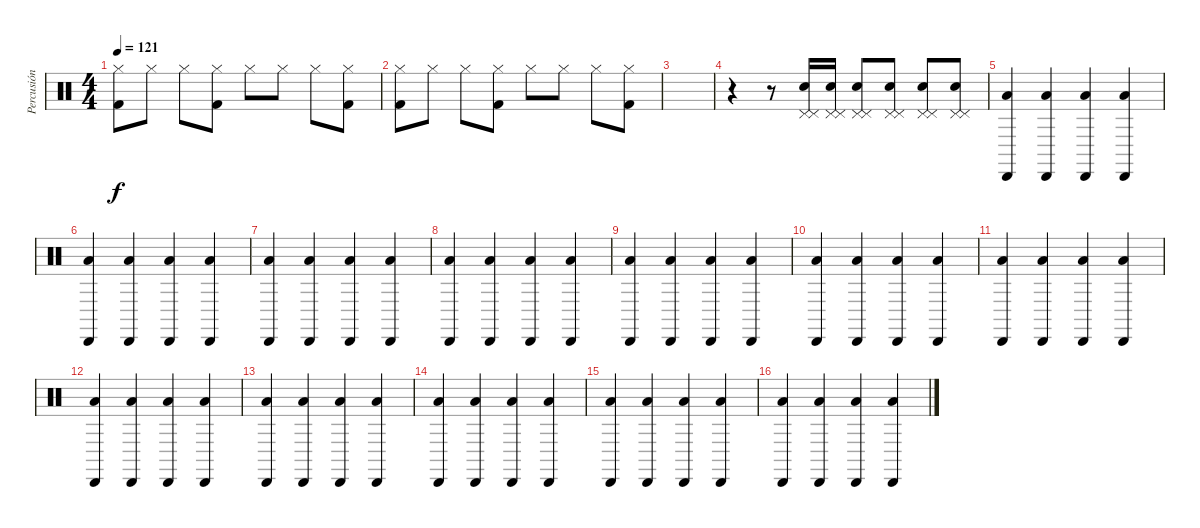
\track ("Percusión" "Percusión") {instrument percussion}
\staff {score}
\articulation defaults
\ts (4 4)
\tempo 121
\clef neutral
\ks c
("Kick (hit) 2" "Hi-Hat (closed)").8{dy f} "Hi-Hat (closed)".8 "Hi-Hat (closed)".8 ("Kick (hit) 2" "Hi-Hat (closed)").8 "Hi-Hat (closed)".8 "Hi-Hat (closed)".8 "Hi-Hat (closed)".8 ("Kick (hit) 2" "Hi-Hat (closed)").8 |
("Kick (hit) 2" "Hi-Hat (closed)").8 "Hi-Hat (closed)".8 "Hi-Hat (closed)".8 ("Kick (hit) 2" "Hi-Hat (closed)").8 "Hi-Hat (closed)".8 "Hi-Hat (closed)".8 "Hi-Hat (closed)".8 ("Kick (hit) 2" "Hi-Hat (closed)").8 |
|
r.4 r.8 ("Pedal Hi-Hat (hit)" "Pedal Hi-Hat (hit)" "Snare (hit)").16 ("Pedal Hi-Hat (hit)" "Pedal Hi-Hat (hit)" "Snare (hit)").16 ("Pedal Hi-Hat (hit)" "Pedal Hi-Hat (hit)" "Snare (hit)").8 ("Pedal Hi-Hat (hit)" "Pedal Hi-Hat (hit)" "Snare (hit)").8 ("Pedal Hi-Hat (hit)" "Pedal Hi-Hat (hit)" "Snare (hit)").8 ("Pedal Hi-Hat (hit)" "Pedal Hi-Hat (hit)" "Snare (hit)").8 |
("Low Tom (hit)" "Cabasa (hit)").4 ("Low Tom (hit)" "Cabasa (hit)").4 ("Low Tom (hit)" "Cabasa (hit)").4 ("Low Tom (hit)" "Cabasa (hit)").4 |
("Low Tom (hit)" "Cabasa (hit)").4 ("Low Tom (hit)" "Cabasa (hit)").4 ("Low Tom (hit)" "Cabasa (hit)").4 ("Low Tom (hit)" "Cabasa (hit)").4 |
("Low Tom (hit)" "Cabasa (hit)").4 ("Low Tom (hit)" "Cabasa (hit)").4 ("Low Tom (hit)" "Cabasa (hit)").4 ("Low Tom (hit)" "Cabasa (hit)").4 |
("Low Tom (hit)" "Cabasa (hit)").4 ("Low Tom (hit)" "Cabasa (hit)").4 ("Low Tom (hit)" "Cabasa (hit)").4 ("Low Tom (hit)" "Cabasa (hit)").4 |
("Low Tom (hit)" "Cabasa (hit)").4 ("Low Tom (hit)" "Cabasa (hit)").4 ("Low Tom (hit)" "Cabasa (hit)").4 ("Low Tom (hit)" "Cabasa (hit)").4 |
("Low Tom (hit)" "Cabasa (hit)").4 ("Low Tom (hit)" "Cabasa (hit)").4 ("Low Tom (hit)" "Cabasa (hit)").4 ("Low Tom (hit)" "Cabasa (hit)").4 |
("Low Tom (hit)" "Cabasa (hit)").4 ("Low Tom (hit)" "Cabasa (hit)").4 ("Low Tom (hit)" "Cabasa (hit)").4 ("Low Tom (hit)" "Cabasa (hit)").4 |
("Low Tom (hit)" "Cabasa (hit)").4 ("Low Tom (hit)" "Cabasa (hit)").4 ("Low Tom (hit)" "Cabasa (hit)").4 ("Low Tom (hit)" "Cabasa (hit)").4 |
("Low Tom (hit)" "Cabasa (hit)").4 ("Low Tom (hit)" "Cabasa (hit)").4 ("Low Tom (hit)" "Cabasa (hit)").4 ("Low Tom (hit)" "Cabasa (hit)").4 |
("Low Tom (hit)" "Cabasa (hit)").4 ("Low Tom (hit)" "Cabasa (hit)").4 ("Low Tom (hit)" "Cabasa (hit)").4 ("Low Tom (hit)" "Cabasa (hit)").4 |
("Low Tom (hit)" "Cabasa (hit)").4 ("Low Tom (hit)" "Cabasa (hit)").4 ("Low Tom (hit)" "Cabasa (hit)").4 ("Low Tom (hit)" "Cabasa (hit)").4 |
("Low Tom (hit)" "Cabasa (hit)").4 ("Low Tom (hit)" "Cabasa (hit)").4 ("Low Tom (hit)" "Cabasa (hit)").4 ("Low Tom (hit)" "Cabasa (hit)").4
